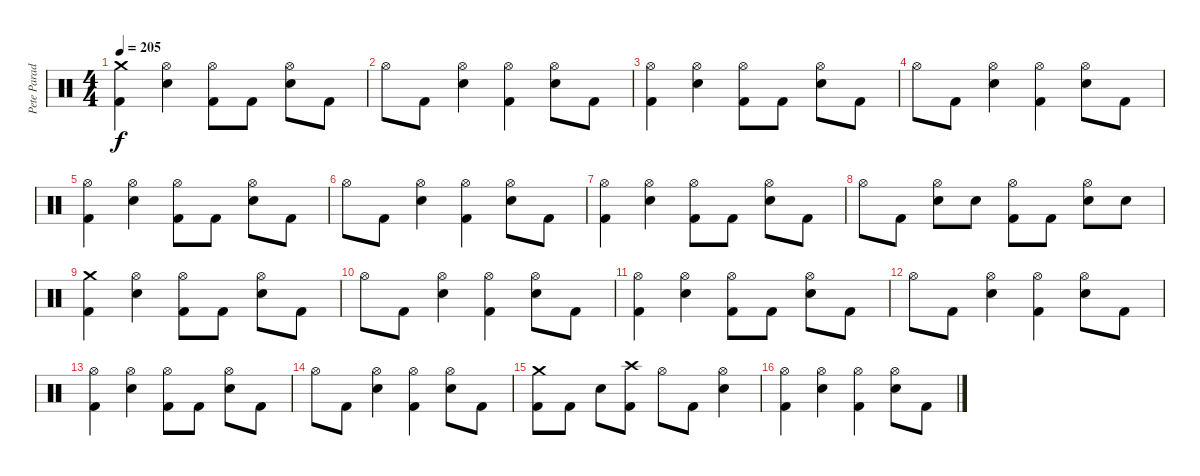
\track ("Pete Parada - Drums" "Pete Parad") {instrument percussion}
\staff {score}
\articulation defaults
\ts (4 4)
\tempo 205
\clef neutral
\ks c
("Crash medium (hit)" "Kick (hit) 2").4{dy f} ("Hi-Hat (open)" "Electric Snare (hit)").4 ("Hi-Hat (open)" "Kick (hit) 2").8 "Kick (hit) 2".8 ("Hi-Hat (open)" "Electric Snare (hit)").8 "Kick (hit) 2".8 |
"Hi-Hat (open)".8 "Kick (hit) 2".8 ("Hi-Hat (open)" "Electric Snare (hit)").4 ("Hi-Hat (open)" "Kick (hit) 2").4 ("Hi-Hat (open)" "Electric Snare (hit)").8 "Kick (hit) 2".8 |
("Hi-Hat (open)" "Kick (hit) 2").4 ("Hi-Hat (open)" "Electric Snare (hit)").4 ("Hi-Hat (open)" "Kick (hit) 2").8 "Kick (hit) 2".8 ("Hi-Hat (open)" "Electric Snare (hit)").8 "Kick (hit) 2".8 |
"Hi-Hat (open)".8 "Kick (hit) 2".8 ("Hi-Hat (open)" "Electric Snare (hit)").4 ("Hi-Hat (open)" "Kick (hit) 2").4 ("Hi-Hat (open)" "Electric Snare (hit)").8 "Kick (hit) 2".8 |
("Hi-Hat (open)" "Kick (hit) 2").4 ("Hi-Hat (open)" "Electric Snare (hit)").4 ("Hi-Hat (open)" "Kick (hit) 2").8 "Kick (hit) 2".8 ("Hi-Hat (open)" "Electric Snare (hit)").8 "Kick (hit) 2".8 |
"Hi-Hat (open)".8 "Kick (hit) 2".8 ("Hi-Hat (open)" "Electric Snare (hit)").4 ("Hi-Hat (open)" "Kick (hit) 2").4 ("Hi-Hat (open)" "Electric Snare (hit)").8 "Kick (hit) 2".8 |
("Hi-Hat (open)" "Kick (hit) 2").4 ("Hi-Hat (open)" "Electric Snare (hit)").4 ("Hi-Hat (open)" "Kick (hit) 2").8 "Kick (hit) 2".8 ("Hi-Hat (open)" "Electric Snare (hit)").8 "Kick (hit) 2".8 |
"Hi-Hat (open)".8 "Kick (hit) 2".8 ("Hi-Hat (open)" "Electric Snare (hit)").8 "Electric Snare (hit)".8 ("Hi-Hat (open)" "Kick (hit) 2").8 "Kick (hit) 2".8 ("Hi-Hat (open)" "Electric Snare (hit)").8 "Electric Snare (hit)".8 |
("Crash medium (hit)" "Kick (hit) 2").4 ("Hi-Hat (open)" "Electric Snare (hit)").4 ("Hi-Hat (open)" "Kick (hit) 2").8 "Kick (hit) 2".8 ("Hi-Hat (open)" "Electric Snare (hit)").8 "Kick (hit) 2".8 |
"Hi-Hat (open)".8 "Kick (hit) 2".8 ("Hi-Hat (open)" "Electric Snare (hit)").4 ("Hi-Hat (open)" "Kick (hit) 2").4 ("Hi-Hat (open)" "Electric Snare (hit)").8 "Kick (hit) 2".8 |
("Hi-Hat (open)" "Kick (hit) 2").4 ("Hi-Hat (open)" "Electric Snare (hit)").4 ("Hi-Hat (open)" "Kick (hit) 2").8 "Kick (hit) 2".8 ("Hi-Hat (open)" "Electric Snare (hit)").8 "Kick (hit) 2".8 |
"Hi-Hat (open)".8 "Kick (hit) 2".8 ("Hi-Hat (open)" "Electric Snare (hit)").4 ("Hi-Hat (open)" "Kick (hit) 2").4 ("Hi-Hat (open)" "Electric Snare (hit)").8 "Kick (hit) 2".8 |
("Hi-Hat (open)" "Kick (hit) 2").4 ("Hi-Hat (open)" "Electric Snare (hit)").4 ("Hi-Hat (open)" "Kick (hit) 2").8 "Kick (hit) 2".8 ("Hi-Hat (open)" "Electric Snare (hit)").8 "Kick (hit) 2".8 |
"Hi-Hat (open)".8 "Kick (hit) 2".8 ("Hi-Hat (open)" "Electric Snare (hit)").4 ("Hi-Hat (open)" "Kick (hit) 2").4 ("Hi-Hat (open)" "Electric Snare (hit)").8 "Kick (hit) 2".8 |
("Crash medium (hit)" "Kick (hit) 2").8 "Kick (hit) 2".8 "Electric Snare (hit)".8 ("Crash high (hit)" "Kick (hit) 2").8 "Hi-Hat (open)".8 "Kick (hit) 2".8 ("Hi-Hat (open)" "Electric Snare (hit)").4 |
("Hi-Hat (open)" "Kick (hit) 2").4 ("Hi-Hat (open)" "Electric Snare (hit)").4 ("Hi-Hat (open)" "Kick (hit) 2").4 ("Hi-Hat (open)" "Electric Snare (hit)").8 "Kick (hit) 2".8
